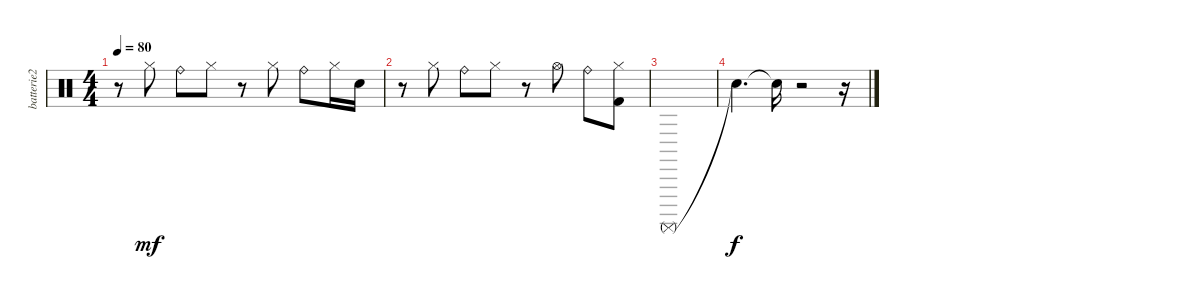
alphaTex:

\track ("batterie2" "batterie2") {instrument percussion}
\staff {score}
\articulation defaults
\ts (4 4)
\tempo 80
\clef neutral
\ks c
r.8{dy mf} "Hi-Hat (closed)".8 "Ride (bell)".8 "Hi-Hat (closed)".8 r.8 "Hi-Hat (closed)".8 "Ride (bell)".8 "Hi-Hat (closed)".16 "Electric Snare (hit)".16 |
r.8 "Hi-Hat (closed)".8 "Ride (bell)".8 "Hi-Hat (closed)".8 r.8 "Hi-Hat (open)".8 "Ride (bell)".8 ("Kick (hit) 2" "Hi-Hat (closed)").8 |
"Surdo (mute)".1 |
"Snare (hit)"{t}.4{d dy f} "Snare (hit)"{t}.16 r.2 r.16
